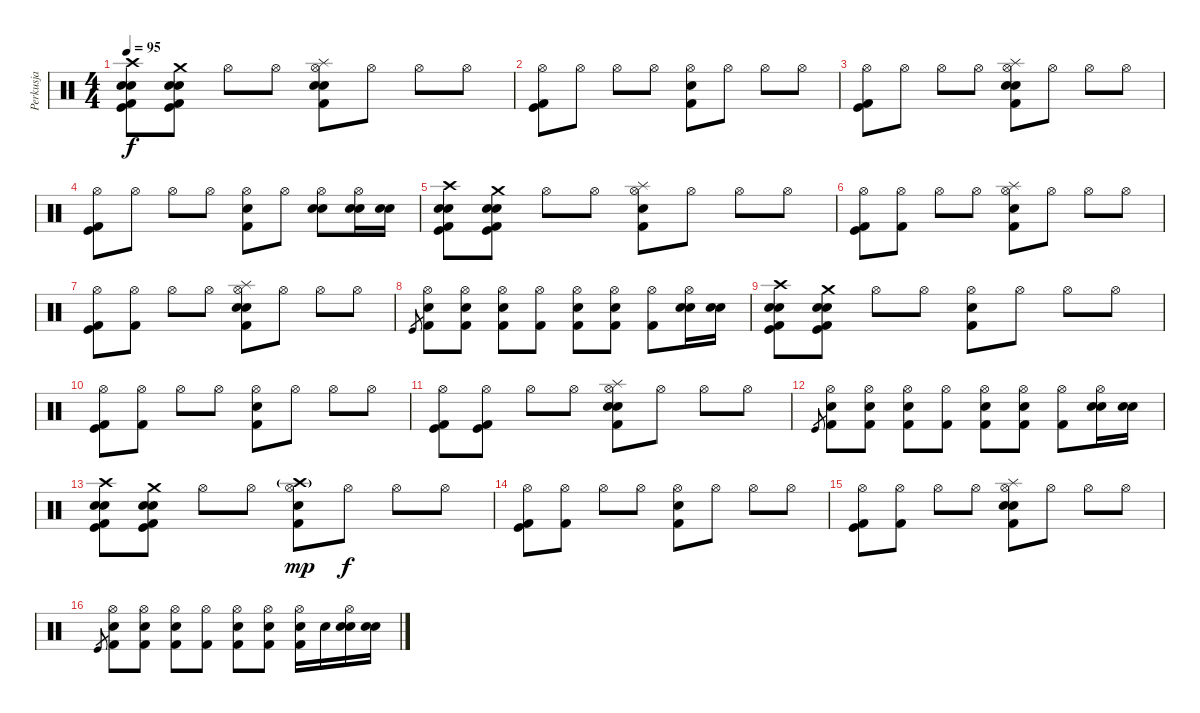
\track ("Perkusja" "Perkusja") {instrument percussion}
\staff {score}
\articulation defaults
\ts (4 4)
\tempo 95
\clef neutral
\ks c
("Crash high (hit)" "Snare (hit) 2" "Electric Snare (hit)" "Kick (hit)" "Kick (hit) 2").8{dy f} ("Crash medium (hit)" "Snare (hit) 2" "Electric Snare (hit)" "Kick (hit)" "Kick (hit) 2").8 "Hi-Hat (open)".8 "Hi-Hat (open)".8 ("Hi-Hat (open)" "Snare (hit) 2" "Splash (hit)" "Kick (hit) 2" "Electric Snare (hit)").8 "Hi-Hat (open)".8 "Hi-Hat (open)".8 "Hi-Hat (open)".8 |
("Hi-Hat (open)" "Kick (hit)" "Kick (hit) 2").8 "Hi-Hat (open)".8 "Hi-Hat (open)".8 "Hi-Hat (open)".8 ("Hi-Hat (open)" "Kick (hit) 2" "Electric Snare (hit)").8 "Hi-Hat (open)".8 "Hi-Hat (open)".8 "Hi-Hat (open)".8 |
("Hi-Hat (open)" "Kick (hit)" "Kick (hit) 2").8 "Hi-Hat (open)".8 "Hi-Hat (open)".8 "Hi-Hat (open)".8 ("Hi-Hat (open)" "Splash (hit)" "Snare (hit) 2" "Kick (hit) 2" "Electric Snare (hit)").8 "Hi-Hat (open)".8 "Hi-Hat (open)".8 "Hi-Hat (open)".8 |
("Hi-Hat (open)" "Kick (hit)" "Kick (hit) 2").8 "Hi-Hat (open)".8 "Hi-Hat (open)".8 "Hi-Hat (open)".8 ("Hi-Hat (open)" "Kick (hit) 2" "Electric Snare (hit)").8 "Hi-Hat (open)".8 ("Hi-Hat (open)" "Electric Snare (hit)" "Electric Snare (hit)").8 ("Hi-Hat (open)" "Electric Snare (hit)" "Electric Snare (hit)").16 ("Electric Snare (hit)" "Electric Snare (hit)").16 |
("Crash high (hit)" "Snare (hit) 2" "Electric Snare (hit)" "Kick (hit)" "Kick (hit) 2").8 ("Crash medium (hit)" "Snare (hit) 2" "Electric Snare (hit)" "Kick (hit)" "Kick (hit) 2").8 "Hi-Hat (open)".8 "Hi-Hat (open)".8 ("Hi-Hat (open)" "Splash (hit)" "Kick (hit) 2" "Electric Snare (hit)").8 "Hi-Hat (open)".8 "Hi-Hat (open)".8 "Hi-Hat (open)".8 |
("Hi-Hat (open)" "Kick (hit)" "Kick (hit) 2").8 ("Hi-Hat (open)" "Kick (hit) 2").8 "Hi-Hat (open)".8 "Hi-Hat (open)".8 ("Hi-Hat (open)" "Splash (hit)" "Kick (hit) 2" "Electric Snare (hit)").8 "Hi-Hat (open)".8 "Hi-Hat (open)".8 "Hi-Hat (open)".8 |
("Hi-Hat (open)" "Kick (hit)" "Kick (hit) 2").8 ("Hi-Hat (open)" "Kick (hit) 2").8 "Hi-Hat (open)".8 "Hi-Hat (open)".8 ("Hi-Hat (open)" "Splash (hit)" "Snare (hit) 2" "Kick (hit) 2" "Electric Snare (hit)").8 "Hi-Hat (open)".8 "Hi-Hat (open)".8 "Hi-Hat (open)".8 |
"Kick (hit)".8{gr} ("Hi-Hat (open)" "Snare (hit) 2" "Kick (hit) 2").8 ("Hi-Hat (open)" "Electric Snare (hit)" "Kick (hit) 2").8 ("Hi-Hat (open)" "Electric Snare (hit)" "Kick (hit) 2").8 ("Hi-Hat (open)" "Kick (hit) 2").8 ("Hi-Hat (open)" "Kick (hit) 2" "Electric Snare (hit)").8 ("Hi-Hat (open)" "Electric Snare (hit)" "Kick (hit) 2").8 ("Hi-Hat (open)" "Kick (hit) 2").8 ("Hi-Hat (open)" "Electric Snare (hit)" "Electric Snare (hit)").16 ("Electric Snare (hit)" "Electric Snare (hit)").16 |
("Crash high (hit)" "Snare (hit) 2" "Electric Snare (hit)" "Kick (hit)" "Kick (hit) 2").8 ("Crash medium (hit)" "Snare (hit) 2" "Electric Snare (hit)" "Kick (hit)" "Kick (hit) 2").8 "Hi-Hat (open)".8 "Hi-Hat (open)".8 ("Hi-Hat (open)" "Kick (hit) 2" "Electric Snare (hit)").8 "Hi-Hat (open)".8 "Hi-Hat (open)".8 "Hi-Hat (open)".8 |
("Hi-Hat (open)" "Kick (hit)" "Kick (hit) 2").8 ("Hi-Hat (open)" "Kick (hit) 2").8 "Hi-Hat (open)".8 "Hi-Hat (open)".8 ("Hi-Hat (open)" "Kick (hit) 2" "Electric Snare (hit)").8 "Hi-Hat (open)".8 "Hi-Hat (open)".8 "Hi-Hat (open)".8 |
("Hi-Hat (open)" "Kick (hit)" "Kick (hit) 2").8 ("Hi-Hat (open)" "Kick (hit)" "Kick (hit) 2").8 "Hi-Hat (open)".8 "Hi-Hat (open)".8 ("Hi-Hat (open)" "Splash (hit)" "Snare (hit) 2" "Kick (hit) 2" "Electric Snare (hit)").8 "Hi-Hat (open)".8 "Hi-Hat (open)".8 "Hi-Hat (open)".8 |
"Kick (hit)".8{gr} ("Hi-Hat (open)" "Snare (hit) 2" "Kick (hit) 2").8 ("Hi-Hat (open)" "Electric Snare (hit)" "Kick (hit) 2").8 ("Hi-Hat (open)" "Electric Snare (hit)" "Kick (hit) 2").8 ("Hi-Hat (open)" "Kick (hit) 2").8 ("Hi-Hat (open)" "Kick (hit) 2" "Electric Snare (hit)").8 ("Hi-Hat (open)" "Electric Snare (hit)" "Kick (hit) 2").8 ("Hi-Hat (open)" "Kick (hit) 2").8 ("Hi-Hat (open)" "Electric Snare (hit)" "Electric Snare (hit)").16 ("Electric Snare (hit)" "Electric Snare (hit)").16 |
("Crash high (hit)" "Snare (hit) 2" "Electric Snare (hit)" "Kick (hit)" "Kick (hit) 2").8 ("Crash medium (hit)" "Snare (hit) 2" "Electric Snare (hit)" "Kick (hit)" "Kick (hit) 2").8 "Hi-Hat (open)".8 "Hi-Hat (open)".8 ("Hi-Hat (open)" "Crash high (hit)"{g} "Kick (hit) 2" "Electric Snare (hit)").8{dy mp} "Hi-Hat (open)".8{dy f} "Hi-Hat (open)".8 "Hi-Hat (open)".8 |
("Hi-Hat (open)" "Kick (hit)" "Kick (hit) 2").8 ("Hi-Hat (open)" "Kick (hit) 2").8 "Hi-Hat (open)".8 "Hi-Hat (open)".8 ("Hi-Hat (open)" "Kick (hit) 2" "Electric Snare (hit)").8 "Hi-Hat (open)".8 "Hi-Hat (open)".8 "Hi-Hat (open)".8 |
("Hi-Hat (open)" "Kick (hit)" "Kick (hit) 2").8 ("Hi-Hat (open)" "Kick (hit) 2").8 "Hi-Hat (open)".8 "Hi-Hat (open)".8 ("Hi-Hat (open)" "Splash (hit)" "Snare (hit) 2" "Kick (hit) 2" "Electric Snare (hit)").8 "Hi-Hat (open)".8 "Hi-Hat (open)".8 "Hi-Hat (open)".8 |
"Kick (hit)".8{gr} ("Hi-Hat (open)" "Snare (hit) 2" "Kick (hit) 2").8 ("Hi-Hat (open)" "Electric Snare (hit)" "Kick (hit) 2").8 ("Hi-Hat (open)" "Electric Snare (hit)" "Kick (hit) 2").8 ("Hi-Hat (open)" "Kick (hit) 2").8 ("Hi-Hat (open)" "Kick (hit) 2" "Electric Snare (hit)").8 ("Hi-Hat (open)" "Electric Snare (hit)" "Kick (hit) 2").8 ("Hi-Hat (open)" "Electric Snare (hit)" "Kick (hit) 2").16 "Electric Snare (hit)".16 ("Hi-Hat (open)" "Electric Snare (hit)" "Electric Snare (hit)").16 ("Electric Snare (hit)" "Electric Snare (hit)").16
